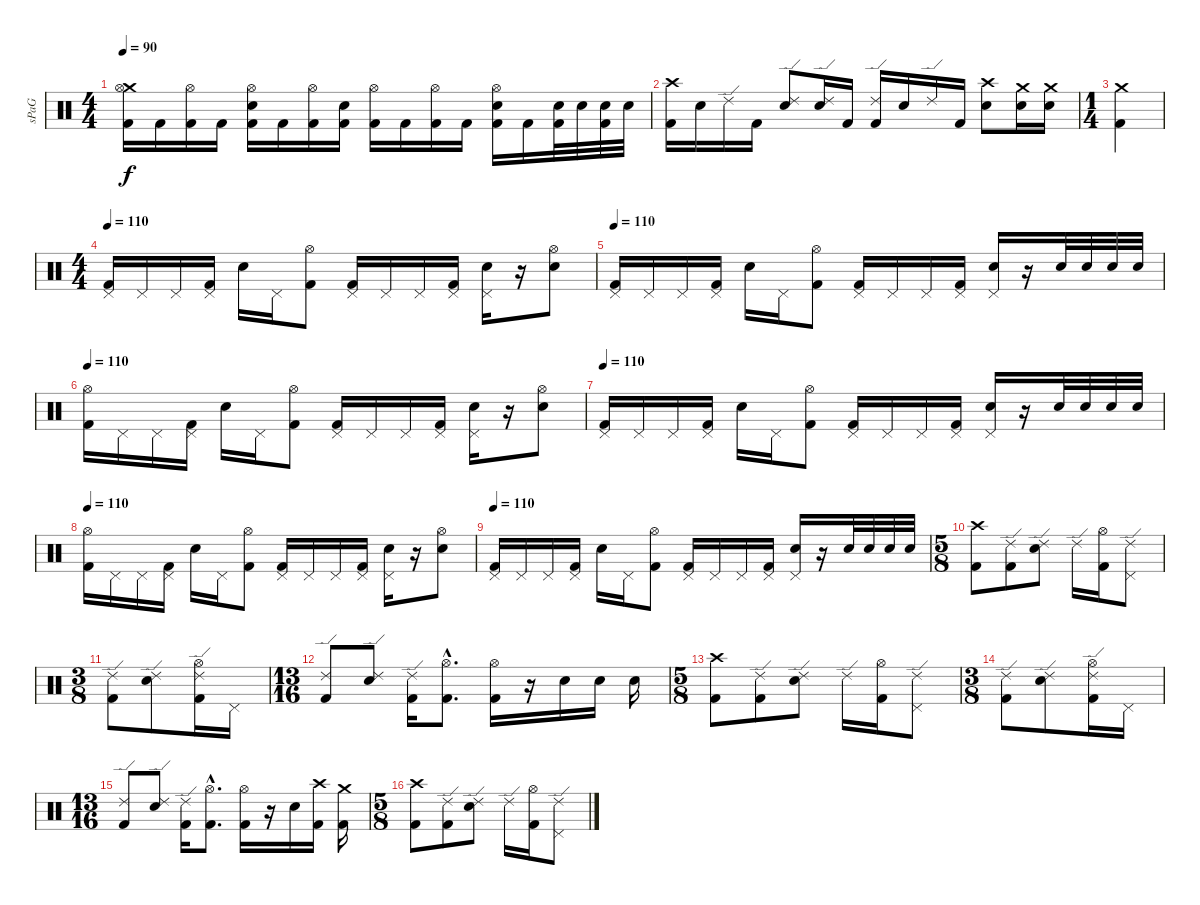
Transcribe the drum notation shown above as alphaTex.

\track ("sPaG" "sPaG") {instrument percussion}
\staff {score}
\articulation defaults
\ts (4 4)
\tempo 90
\clef neutral
\ks c
("Crash medium (hit)" "Hi-Hat (open)" "Kick (hit) 2").16{dy f} "Kick (hit) 2".16 ("Hi-Hat (open)" "Kick (hit) 2").16 "Kick (hit) 2".16 ("Hi-Hat (open)" "Snare (hit) 2" "Kick (hit) 2").16 "Kick (hit) 2".16 ("Hi-Hat (open)" "Kick (hit) 2").16 ("Snare (hit) 2" "Kick (hit) 2").16 ("Hi-Hat (open)" "Kick (hit) 2").16 "Kick (hit) 2".16 ("Hi-Hat (open)" "Kick (hit) 2").16 "Kick (hit) 2".16 ("Hi-Hat (open)" "Snare (hit) 2" "Kick (hit) 2").16 "Kick (hit) 2".16 ("Snare (hit) 2" "Kick (hit) 2").32 "Snare (hit) 2".32 ("Snare (hit) 2" "Kick (hit) 2").32 "Snare (hit) 2".32 |
("Crash high (hit)" "Kick (hit) 2").16 "Snare (hit) 2".16 "Ride (edge) 2".16 "Kick (hit) 2".16 ("Ride (edge) 2" "Snare (hit) 2").8 ("Ride (edge) 2" "Snare (hit) 2").16 "Kick (hit) 2".16 ("Ride (edge) 2" "Kick (hit) 2").16 "Snare (hit) 2".16 "Ride (edge) 2".16 "Kick (hit) 2".16 ("Crash high (hit)" "Snare (hit) 2").8 ("Crash medium (hit)" "Snare (hit) 2").16 ("Crash medium (hit)" "Snare (hit) 2").16 |
\ts (1 4)
("Crash medium (hit)" "Kick (hit) 2").4 |
\ts (4 4)
\tempo 110
("Pedal Hi-Hat (hit)" "Kick (hit) 2").16 "Pedal Hi-Hat (hit)".16 "Pedal Hi-Hat (hit)".16 ("Pedal Hi-Hat (hit)" "Kick (hit) 2").16 "Snare (hit) 2".16 "Pedal Hi-Hat (hit)".16 ("Hi-Hat (open)" "Kick (hit) 2").8 ("Pedal Hi-Hat (hit)" "Kick (hit) 2").16 "Pedal Hi-Hat (hit)".16 "Pedal Hi-Hat (hit)".16 ("Pedal Hi-Hat (hit)" "Kick (hit) 2").16 ("Pedal Hi-Hat (hit)" "Snare (hit) 2").16 r.16 ("Hi-Hat (open)" "Snare (hit) 2").8 |
\tempo 110
("Pedal Hi-Hat (hit)" "Kick (hit) 2").16 "Pedal Hi-Hat (hit)".16 "Pedal Hi-Hat (hit)".16 ("Pedal Hi-Hat (hit)" "Kick (hit) 2").16 "Snare (hit) 2".16 "Pedal Hi-Hat (hit)".16 ("Hi-Hat (open)" "Kick (hit) 2").8 ("Pedal Hi-Hat (hit)" "Kick (hit) 2").16 "Pedal Hi-Hat (hit)".16 "Pedal Hi-Hat (hit)".16 ("Pedal Hi-Hat (hit)" "Kick (hit) 2").16 ("Pedal Hi-Hat (hit)" "Snare (hit) 2").16 r.16 "Snare (hit) 2".32 "Snare (hit) 2".32 "Snare (hit) 2".32 "Snare (hit) 2".32 |
\tempo 110
("Hi-Hat (open)" "Kick (hit) 2").16 "Pedal Hi-Hat (hit)".16 "Pedal Hi-Hat (hit)".16 ("Pedal Hi-Hat (hit)" "Kick (hit) 2").16 "Snare (hit) 2".16 "Pedal Hi-Hat (hit)".16 ("Hi-Hat (open)" "Kick (hit) 2").8 ("Pedal Hi-Hat (hit)" "Kick (hit) 2").16 "Pedal Hi-Hat (hit)".16 "Pedal Hi-Hat (hit)".16 ("Pedal Hi-Hat (hit)" "Kick (hit) 2").16 ("Pedal Hi-Hat (hit)" "Snare (hit) 2").16 r.16 ("Hi-Hat (open)" "Snare (hit) 2").8 |
\tempo 110
("Pedal Hi-Hat (hit)" "Kick (hit) 2").16 "Pedal Hi-Hat (hit)".16 "Pedal Hi-Hat (hit)".16 ("Pedal Hi-Hat (hit)" "Kick (hit) 2").16 "Snare (hit) 2".16 "Pedal Hi-Hat (hit)".16 ("Hi-Hat (open)" "Kick (hit) 2").8 ("Pedal Hi-Hat (hit)" "Kick (hit) 2").16 "Pedal Hi-Hat (hit)".16 "Pedal Hi-Hat (hit)".16 ("Pedal Hi-Hat (hit)" "Kick (hit) 2").16 ("Pedal Hi-Hat (hit)" "Snare (hit) 2").16 r.16 "Snare (hit) 2".32 "Snare (hit) 2".32 "Snare (hit) 2".32 "Snare (hit) 2".32 |
\tempo 110
("Hi-Hat (open)" "Kick (hit) 2").16 "Pedal Hi-Hat (hit)".16 "Pedal Hi-Hat (hit)".16 ("Pedal Hi-Hat (hit)" "Kick (hit) 2").16 "Snare (hit) 2".16 "Pedal Hi-Hat (hit)".16 ("Hi-Hat (open)" "Kick (hit) 2").8 ("Pedal Hi-Hat (hit)" "Kick (hit) 2").16 "Pedal Hi-Hat (hit)".16 "Pedal Hi-Hat (hit)".16 ("Pedal Hi-Hat (hit)" "Kick (hit) 2").16 ("Pedal Hi-Hat (hit)" "Snare (hit) 2").16 r.16 ("Hi-Hat (open)" "Snare (hit) 2").8 |
\tempo 110
("Pedal Hi-Hat (hit)" "Kick (hit) 2").16 "Pedal Hi-Hat (hit)".16 "Pedal Hi-Hat (hit)".16 ("Pedal Hi-Hat (hit)" "Kick (hit) 2").16 "Snare (hit) 2".16 "Pedal Hi-Hat (hit)".16 ("Hi-Hat (open)" "Kick (hit) 2").8 ("Pedal Hi-Hat (hit)" "Kick (hit) 2").16 "Pedal Hi-Hat (hit)".16 "Pedal Hi-Hat (hit)".16 ("Pedal Hi-Hat (hit)" "Kick (hit) 2").16 ("Pedal Hi-Hat (hit)" "Snare (hit) 2").16 r.16 "Snare (hit) 2".32 "Snare (hit) 2".32 "Snare (hit) 2".32 "Snare (hit) 2".32 |
\ts (5 8)
("Crash high (hit)" "Kick (hit) 2").8 ("Ride (edge) 2" "Kick (hit) 2").8 ("Ride (edge) 2" "Snare (hit) 2").8 "Ride (edge) 2".16 ("Hi-Hat (open)" "Kick (hit) 2").16 ("Ride (edge) 2" "Pedal Hi-Hat (hit)").8 |
\ts (3 8)
("Ride (edge) 2" "Kick (hit) 2").8 ("Ride (edge) 2" "Snare (hit) 2").8 ("Ride (edge) 2" "Hi-Hat (open)" "Kick (hit) 2").16 "Pedal Hi-Hat (hit)".16 |
\ts (13 16)
("Ride (edge) 2" "Kick (hit) 2").8 ("Ride (edge) 2" "Snare (hit) 2").8 ("Ride (edge) 2" "Kick (hit) 2").16 ("Hi-Hat (open)"{hac} "Kick (hit) 2"{hac}).8{d} ("Hi-Hat (open)" "Kick (hit) 2").16 r.16 "Snare (hit) 2".16 "Snare (hit) 2".16 "Snare (hit) 2".16 |
\ts (5 8)
("Crash high (hit)" "Kick (hit) 2").8 ("Ride (edge) 2" "Kick (hit) 2").8 ("Ride (edge) 2" "Snare (hit) 2").8 "Ride (edge) 2".16 ("Hi-Hat (open)" "Kick (hit) 2").16 ("Ride (edge) 2" "Pedal Hi-Hat (hit)").8 |
\ts (3 8)
("Ride (edge) 2" "Kick (hit) 2").8 ("Ride (edge) 2" "Snare (hit) 2").8 ("Ride (edge) 2" "Hi-Hat (open)" "Kick (hit) 2").16 "Pedal Hi-Hat (hit)".16 |
\ts (13 16)
("Ride (edge) 2" "Kick (hit) 2").8 ("Ride (edge) 2" "Snare (hit) 2").8 ("Ride (edge) 2" "Kick (hit) 2").16 ("Hi-Hat (open)"{hac} "Kick (hit) 2"{hac}).8{d} ("Hi-Hat (open)" "Kick (hit) 2").16 r.16 "Snare (hit) 2".16 ("Crash high (hit)" "Kick (hit) 2").16 ("Crash medium (hit)" "Kick (hit) 2").16 |
\ts (5 8)
("Crash high (hit)" "Kick (hit) 2").8 ("Ride (edge) 2" "Kick (hit) 2").8 ("Ride (edge) 2" "Snare (hit) 2").8 "Ride (edge) 2".16 ("Hi-Hat (open)" "Kick (hit) 2").16 ("Ride (edge) 2" "Pedal Hi-Hat (hit)").8
